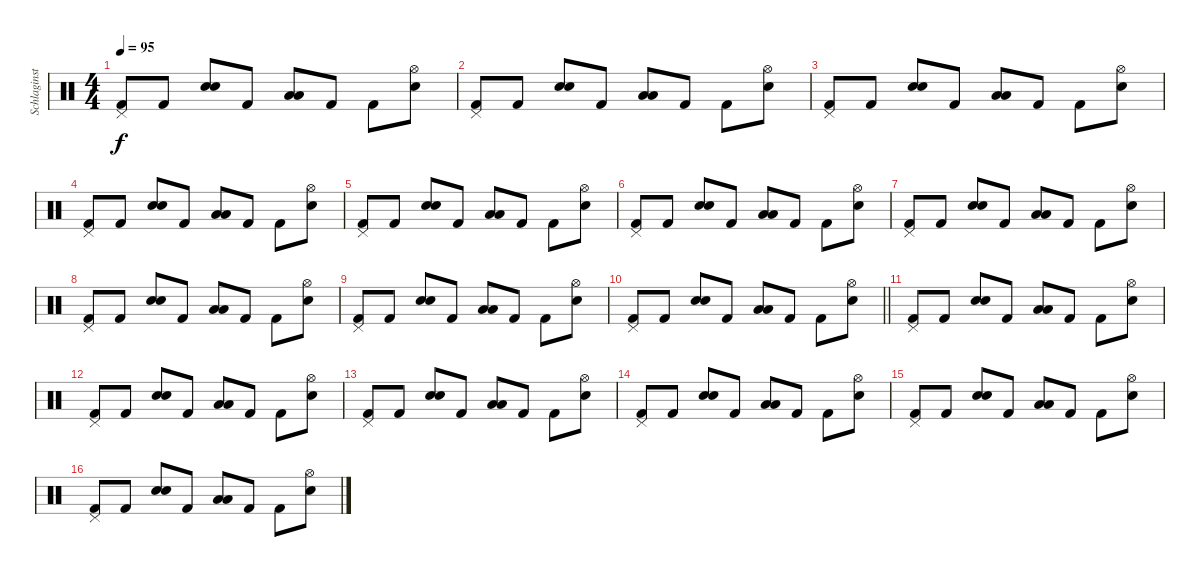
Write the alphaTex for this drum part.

\track ("Schlaginstrumente - Auswahl" "Schlaginst") {instrument percussion}
\staff {score}
\articulation defaults
\ts (4 4)
\tempo 95
\clef neutral
\ks c
("Pedal Hi-Hat (hit)" "Kick (hit) 2").8{dy f} "Kick (hit) 2".8 ("Snare (hit) 2" "Snare (hit) 2").8{bd 240} "Kick (hit) 2".8 ("Low Tom (hit)" "Low Floor Tom (hit)").8 "Kick (hit) 2".8 "Kick (hit) 2".8 ("Hi-Hat (open)" "Snare (hit) 2").8 |
("Pedal Hi-Hat (hit)" "Kick (hit) 2").8 "Kick (hit) 2".8 ("Snare (hit) 2" "Snare (hit) 2").8{bd 240} "Kick (hit) 2".8 ("Low Tom (hit)" "Low Floor Tom (hit)").8 "Kick (hit) 2".8 "Kick (hit) 2".8 ("Hi-Hat (open)" "Snare (hit) 2").8 |
("Pedal Hi-Hat (hit)" "Kick (hit) 2").8 "Kick (hit) 2".8 ("Snare (hit) 2" "Snare (hit) 2").8{bd 240} "Kick (hit) 2".8 ("Low Tom (hit)" "Low Floor Tom (hit)").8 "Kick (hit) 2".8 "Kick (hit) 2".8 ("Hi-Hat (open)" "Snare (hit) 2").8 |
("Pedal Hi-Hat (hit)" "Kick (hit) 2").8 "Kick (hit) 2".8 ("Snare (hit) 2" "Snare (hit) 2").8{bd 240} "Kick (hit) 2".8 ("Low Tom (hit)" "Low Floor Tom (hit)").8 "Kick (hit) 2".8 "Kick (hit) 2".8 ("Hi-Hat (open)" "Snare (hit) 2").8 |
("Pedal Hi-Hat (hit)" "Kick (hit) 2").8 "Kick (hit) 2".8 ("Snare (hit) 2" "Snare (hit) 2").8{bd 240} "Kick (hit) 2".8 ("Low Tom (hit)" "Low Floor Tom (hit)").8 "Kick (hit) 2".8 "Kick (hit) 2".8 ("Hi-Hat (open)" "Snare (hit) 2").8 |
("Pedal Hi-Hat (hit)" "Kick (hit) 2").8 "Kick (hit) 2".8 ("Snare (hit) 2" "Snare (hit) 2").8{bd 240} "Kick (hit) 2".8 ("Low Tom (hit)" "Low Floor Tom (hit)").8 "Kick (hit) 2".8 "Kick (hit) 2".8 ("Hi-Hat (open)" "Snare (hit) 2").8 |
("Pedal Hi-Hat (hit)" "Kick (hit) 2").8 "Kick (hit) 2".8 ("Snare (hit) 2" "Snare (hit) 2").8{bd 240} "Kick (hit) 2".8 ("Low Tom (hit)" "Low Floor Tom (hit)").8 "Kick (hit) 2".8 "Kick (hit) 2".8 ("Hi-Hat (open)" "Snare (hit) 2").8 |
("Pedal Hi-Hat (hit)" "Kick (hit) 2").8 "Kick (hit) 2".8 ("Snare (hit) 2" "Snare (hit) 2").8{bd 240} "Kick (hit) 2".8 ("Low Tom (hit)" "Low Floor Tom (hit)").8 "Kick (hit) 2".8 "Kick (hit) 2".8 ("Hi-Hat (open)" "Snare (hit) 2").8 |
("Pedal Hi-Hat (hit)" "Kick (hit) 2").8 "Kick (hit) 2".8 ("Snare (hit) 2" "Snare (hit) 2").8{bd 240} "Kick (hit) 2".8 ("Low Tom (hit)" "Low Floor Tom (hit)").8 "Kick (hit) 2".8 "Kick (hit) 2".8 ("Hi-Hat (open)" "Snare (hit) 2").8 |
\barLineRight lightlight
("Pedal Hi-Hat (hit)" "Kick (hit) 2").8 "Kick (hit) 2".8 ("Snare (hit) 2" "Snare (hit) 2").8{bd 240} "Kick (hit) 2".8 ("Low Tom (hit)" "Low Floor Tom (hit)").8 "Kick (hit) 2".8 "Kick (hit) 2".8 ("Hi-Hat (open)" "Snare (hit) 2").8 |
("Pedal Hi-Hat (hit)" "Kick (hit) 2").8 "Kick (hit) 2".8 ("Snare (hit) 2" "Snare (hit) 2").8{bd 240} "Kick (hit) 2".8 ("Low Tom (hit)" "Low Floor Tom (hit)").8 "Kick (hit) 2".8 "Kick (hit) 2".8 ("Hi-Hat (open)" "Snare (hit) 2").8 |
("Pedal Hi-Hat (hit)" "Kick (hit) 2").8 "Kick (hit) 2".8 ("Snare (hit) 2" "Snare (hit) 2").8{bd 240} "Kick (hit) 2".8 ("Low Tom (hit)" "Low Floor Tom (hit)").8 "Kick (hit) 2".8 "Kick (hit) 2".8 ("Hi-Hat (open)" "Snare (hit) 2").8 |
("Pedal Hi-Hat (hit)" "Kick (hit) 2").8 "Kick (hit) 2".8 ("Snare (hit) 2" "Snare (hit) 2").8{bd 240} "Kick (hit) 2".8 ("Low Tom (hit)" "Low Floor Tom (hit)").8 "Kick (hit) 2".8 "Kick (hit) 2".8 ("Hi-Hat (open)" "Snare (hit) 2").8 |
("Pedal Hi-Hat (hit)" "Kick (hit) 2").8 "Kick (hit) 2".8 ("Snare (hit) 2" "Snare (hit) 2").8{bd 240} "Kick (hit) 2".8 ("Low Tom (hit)" "Low Floor Tom (hit)").8 "Kick (hit) 2".8 "Kick (hit) 2".8 ("Hi-Hat (open)" "Snare (hit) 2").8 |
("Pedal Hi-Hat (hit)" "Kick (hit) 2").8 "Kick (hit) 2".8 ("Snare (hit) 2" "Snare (hit) 2").8{bd 240} "Kick (hit) 2".8 ("Low Tom (hit)" "Low Floor Tom (hit)").8 "Kick (hit) 2".8 "Kick (hit) 2".8 ("Hi-Hat (open)" "Snare (hit) 2").8 |
("Pedal Hi-Hat (hit)" "Kick (hit) 2").8 "Kick (hit) 2".8 ("Snare (hit) 2" "Snare (hit) 2").8{bd 240} "Kick (hit) 2".8 ("Low Tom (hit)" "Low Floor Tom (hit)").8 "Kick (hit) 2".8 "Kick (hit) 2".8 ("Hi-Hat (open)" "Snare (hit) 2").8
